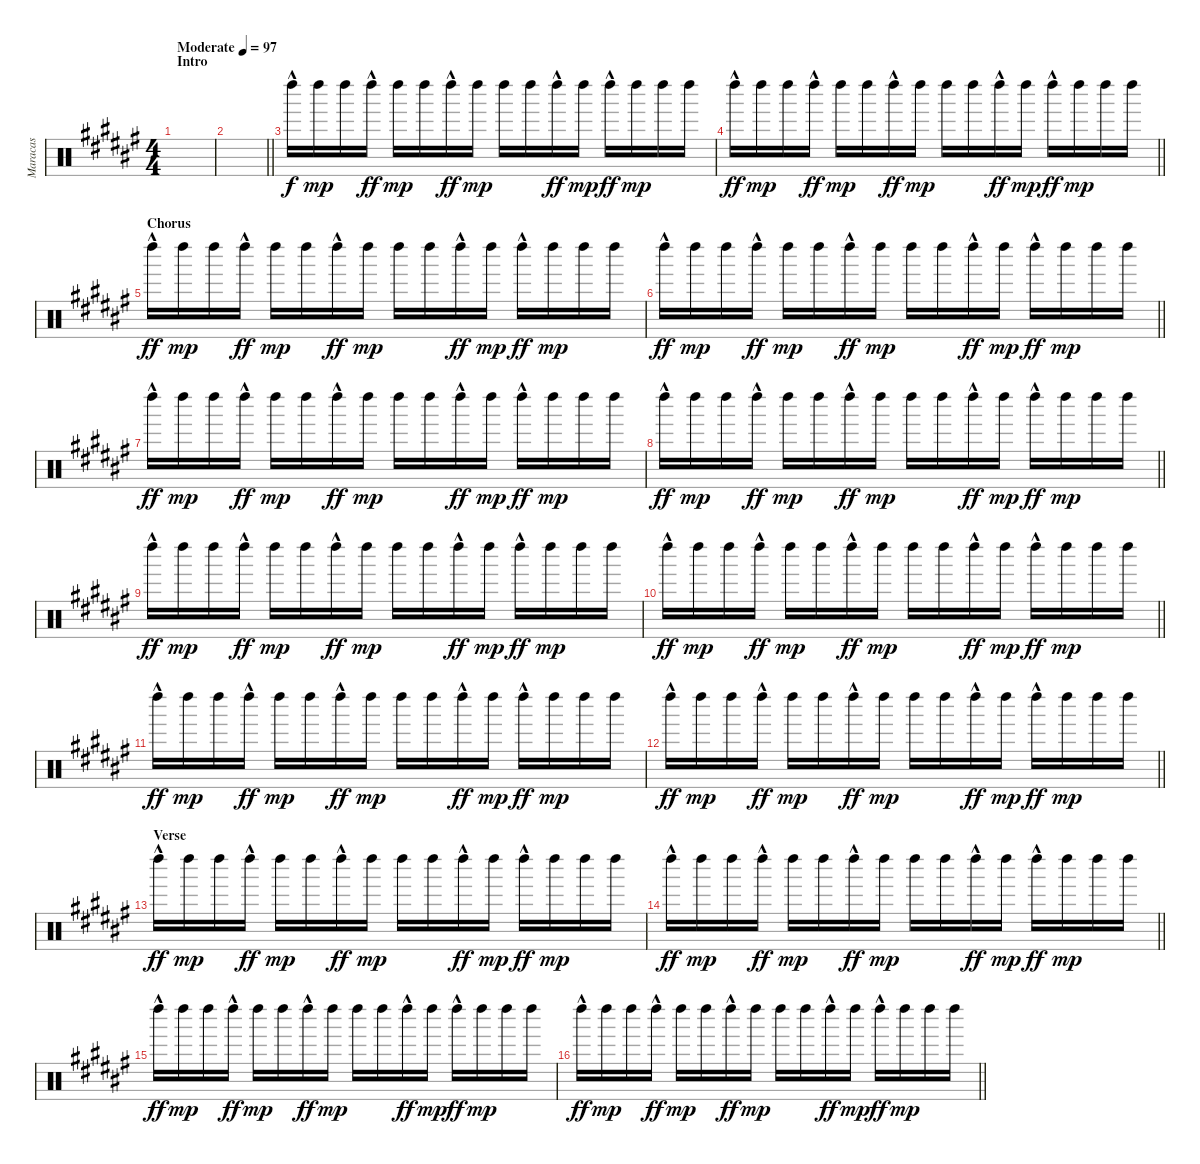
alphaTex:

\track ("Maracas" "Maracas") {instrument percussion}
\staff {score}
\articulation defaults
\ts (4 4)
\section ("" "Intro")
\tempo (97 "Moderate")
\clef neutral
\ks f#
|
\barLineRight lightlight
|
"Left Maraca (hit)"{hac}.16 "Left Maraca (hit)".16{dy mp} "Left Maraca (hit)".16 "Left Maraca (hit)"{hac}.16{dy ff} "Left Maraca (hit)".16{dy mp} "Left Maraca (hit)".16 "Left Maraca (hit)"{hac}.16{dy ff} "Left Maraca (hit)".16{dy mp} "Left Maraca (hit)".16 "Left Maraca (hit)".16 "Left Maraca (hit)"{hac}.16{dy ff} "Left Maraca (hit)".16{dy mp} "Left Maraca (hit)"{hac}.16{dy ff} "Left Maraca (hit)".16{dy mp} "Left Maraca (hit)".16 "Left Maraca (hit)".16 |
\barLineRight lightlight "Left Maraca (hit)"{hac}.16{dy ff} "Left Maraca (hit)".16{dy mp} "Left Maraca (hit)".16 "Left Maraca (hit)"{hac}.16{dy ff} "Left Maraca (hit)".16{dy mp} "Left Maraca (hit)".16 "Left Maraca (hit)"{hac}.16{dy ff} "Left Maraca (hit)".16{dy mp} "Left Maraca (hit)".16 "Left Maraca (hit)".16 "Left Maraca (hit)"{hac}.16{dy ff} "Left Maraca (hit)".16{dy mp} "Left Maraca (hit)"{hac}.16{dy ff} "Left Maraca (hit)".16{dy mp} "Left Maraca (hit)".16 "Left Maraca (hit)".16
|
\section ("" "Chorus")
"Left Maraca (hit)"{hac}.16{dy ff} "Left Maraca (hit)".16{dy mp} "Left Maraca (hit)".16 "Left Maraca (hit)"{hac}.16{dy ff} "Left Maraca (hit)".16{dy mp} "Left Maraca (hit)".16 "Left Maraca (hit)"{hac}.16{dy ff} "Left Maraca (hit)".16{dy mp} "Left Maraca (hit)".16 "Left Maraca (hit)".16 "Left Maraca (hit)"{hac}.16{dy ff} "Left Maraca (hit)".16{dy mp} "Left Maraca (hit)"{hac}.16{dy ff} "Left Maraca (hit)".16{dy mp} "Left Maraca (hit)".16 "Left Maraca (hit)".16 |
\barLineRight lightlight "Left Maraca (hit)"{hac}.16{dy ff} "Left Maraca (hit)".16{dy mp} "Left Maraca (hit)".16 "Left Maraca (hit)"{hac}.16{dy ff} "Left Maraca (hit)".16{dy mp} "Left Maraca (hit)".16 "Left Maraca (hit)"{hac}.16{dy ff} "Left Maraca (hit)".16{dy mp} "Left Maraca (hit)".16 "Left Maraca (hit)".16 "Left Maraca (hit)"{hac}.16{dy ff} "Left Maraca (hit)".16{dy mp} "Left Maraca (hit)"{hac}.16{dy ff} "Left Maraca (hit)".16{dy mp} "Left Maraca (hit)".16 "Left Maraca (hit)".16
|
"Left Maraca (hit)"{hac}.16{dy ff} "Left Maraca (hit)".16{dy mp} "Left Maraca (hit)".16 "Left Maraca (hit)"{hac}.16{dy ff} "Left Maraca (hit)".16{dy mp} "Left Maraca (hit)".16 "Left Maraca (hit)"{hac}.16{dy ff} "Left Maraca (hit)".16{dy mp} "Left Maraca (hit)".16 "Left Maraca (hit)".16 "Left Maraca (hit)"{hac}.16{dy ff} "Left Maraca (hit)".16{dy mp} "Left Maraca (hit)"{hac}.16{dy ff} "Left Maraca (hit)".16{dy mp} "Left Maraca (hit)".16 "Left Maraca (hit)".16 |
\barLineRight lightlight "Left Maraca (hit)"{hac}.16{dy ff} "Left Maraca (hit)".16{dy mp} "Left Maraca (hit)".16 "Left Maraca (hit)"{hac}.16{dy ff} "Left Maraca (hit)".16{dy mp} "Left Maraca (hit)".16 "Left Maraca (hit)"{hac}.16{dy ff} "Left Maraca (hit)".16{dy mp} "Left Maraca (hit)".16 "Left Maraca (hit)".16 "Left Maraca (hit)"{hac}.16{dy ff} "Left Maraca (hit)".16{dy mp} "Left Maraca (hit)"{hac}.16{dy ff} "Left Maraca (hit)".16{dy mp} "Left Maraca (hit)".16 "Left Maraca (hit)".16
|
"Left Maraca (hit)"{hac}.16{dy ff} "Left Maraca (hit)".16{dy mp} "Left Maraca (hit)".16 "Left Maraca (hit)"{hac}.16{dy ff} "Left Maraca (hit)".16{dy mp} "Left Maraca (hit)".16 "Left Maraca (hit)"{hac}.16{dy ff} "Left Maraca (hit)".16{dy mp} "Left Maraca (hit)".16 "Left Maraca (hit)".16 "Left Maraca (hit)"{hac}.16{dy ff} "Left Maraca (hit)".16{dy mp} "Left Maraca (hit)"{hac}.16{dy ff} "Left Maraca (hit)".16{dy mp} "Left Maraca (hit)".16 "Left Maraca (hit)".16 |
\barLineRight lightlight "Left Maraca (hit)"{hac}.16{dy ff} "Left Maraca (hit)".16{dy mp} "Left Maraca (hit)".16 "Left Maraca (hit)"{hac}.16{dy ff} "Left Maraca (hit)".16{dy mp} "Left Maraca (hit)".16 "Left Maraca (hit)"{hac}.16{dy ff} "Left Maraca (hit)".16{dy mp} "Left Maraca (hit)".16 "Left Maraca (hit)".16 "Left Maraca (hit)"{hac}.16{dy ff} "Left Maraca (hit)".16{dy mp} "Left Maraca (hit)"{hac}.16{dy ff} "Left Maraca (hit)".16{dy mp} "Left Maraca (hit)".16 "Left Maraca (hit)".16
|
"Left Maraca (hit)"{hac}.16{dy ff} "Left Maraca (hit)".16{dy mp} "Left Maraca (hit)".16 "Left Maraca (hit)"{hac}.16{dy ff} "Left Maraca (hit)".16{dy mp} "Left Maraca (hit)".16 "Left Maraca (hit)"{hac}.16{dy ff} "Left Maraca (hit)".16{dy mp} "Left Maraca (hit)".16 "Left Maraca (hit)".16 "Left Maraca (hit)"{hac}.16{dy ff} "Left Maraca (hit)".16{dy mp} "Left Maraca (hit)"{hac}.16{dy ff} "Left Maraca (hit)".16{dy mp} "Left Maraca (hit)".16 "Left Maraca (hit)".16 |
\barLineRight lightlight "Left Maraca (hit)"{hac}.16{dy ff} "Left Maraca (hit)".16{dy mp} "Left Maraca (hit)".16 "Left Maraca (hit)"{hac}.16{dy ff} "Left Maraca (hit)".16{dy mp} "Left Maraca (hit)".16 "Left Maraca (hit)"{hac}.16{dy ff} "Left Maraca (hit)".16{dy mp} "Left Maraca (hit)".16 "Left Maraca (hit)".16 "Left Maraca (hit)"{hac}.16{dy ff} "Left Maraca (hit)".16{dy mp} "Left Maraca (hit)"{hac}.16{dy ff} "Left Maraca (hit)".16{dy mp} "Left Maraca (hit)".16 "Left Maraca (hit)".16
|
\section ("" "Verse")
"Left Maraca (hit)"{hac}.16{dy ff} "Left Maraca (hit)".16{dy mp} "Left Maraca (hit)".16 "Left Maraca (hit)"{hac}.16{dy ff} "Left Maraca (hit)".16{dy mp} "Left Maraca (hit)".16 "Left Maraca (hit)"{hac}.16{dy ff} "Left Maraca (hit)".16{dy mp} "Left Maraca (hit)".16 "Left Maraca (hit)".16 "Left Maraca (hit)"{hac}.16{dy ff} "Left Maraca (hit)".16{dy mp} "Left Maraca (hit)"{hac}.16{dy ff} "Left Maraca (hit)".16{dy mp} "Left Maraca (hit)".16 "Left Maraca (hit)".16 |
\barLineRight lightlight "Left Maraca (hit)"{hac}.16{dy ff} "Left Maraca (hit)".16{dy mp} "Left Maraca (hit)".16 "Left Maraca (hit)"{hac}.16{dy ff} "Left Maraca (hit)".16{dy mp} "Left Maraca (hit)".16 "Left Maraca (hit)"{hac}.16{dy ff} "Left Maraca (hit)".16{dy mp} "Left Maraca (hit)".16 "Left Maraca (hit)".16 "Left Maraca (hit)"{hac}.16{dy ff} "Left Maraca (hit)".16{dy mp} "Left Maraca (hit)"{hac}.16{dy ff} "Left Maraca (hit)".16{dy mp} "Left Maraca (hit)".16 "Left Maraca (hit)".16
|
"Left Maraca (hit)"{hac}.16{dy ff} "Left Maraca (hit)".16{dy mp} "Left Maraca (hit)".16 "Left Maraca (hit)"{hac}.16{dy ff} "Left Maraca (hit)".16{dy mp} "Left Maraca (hit)".16 "Left Maraca (hit)"{hac}.16{dy ff} "Left Maraca (hit)".16{dy mp} "Left Maraca (hit)".16 "Left Maraca (hit)".16 "Left Maraca (hit)"{hac}.16{dy ff} "Left Maraca (hit)".16{dy mp} "Left Maraca (hit)"{hac}.16{dy ff} "Left Maraca (hit)".16{dy mp} "Left Maraca (hit)".16 "Left Maraca (hit)".16 |
\barLineRight lightlight "Left Maraca (hit)"{hac}.16{dy ff} "Left Maraca (hit)".16{dy mp} "Left Maraca (hit)".16 "Left Maraca (hit)"{hac}.16{dy ff} "Left Maraca (hit)".16{dy mp} "Left Maraca (hit)".16 "Left Maraca (hit)"{hac}.16{dy ff} "Left Maraca (hit)".16{dy mp} "Left Maraca (hit)".16 "Left Maraca (hit)".16 "Left Maraca (hit)"{hac}.16{dy ff} "Left Maraca (hit)".16{dy mp} "Left Maraca (hit)"{hac}.16{dy ff} "Left Maraca (hit)".16{dy mp} "Left Maraca (hit)".16 "Left Maraca (hit)".16
